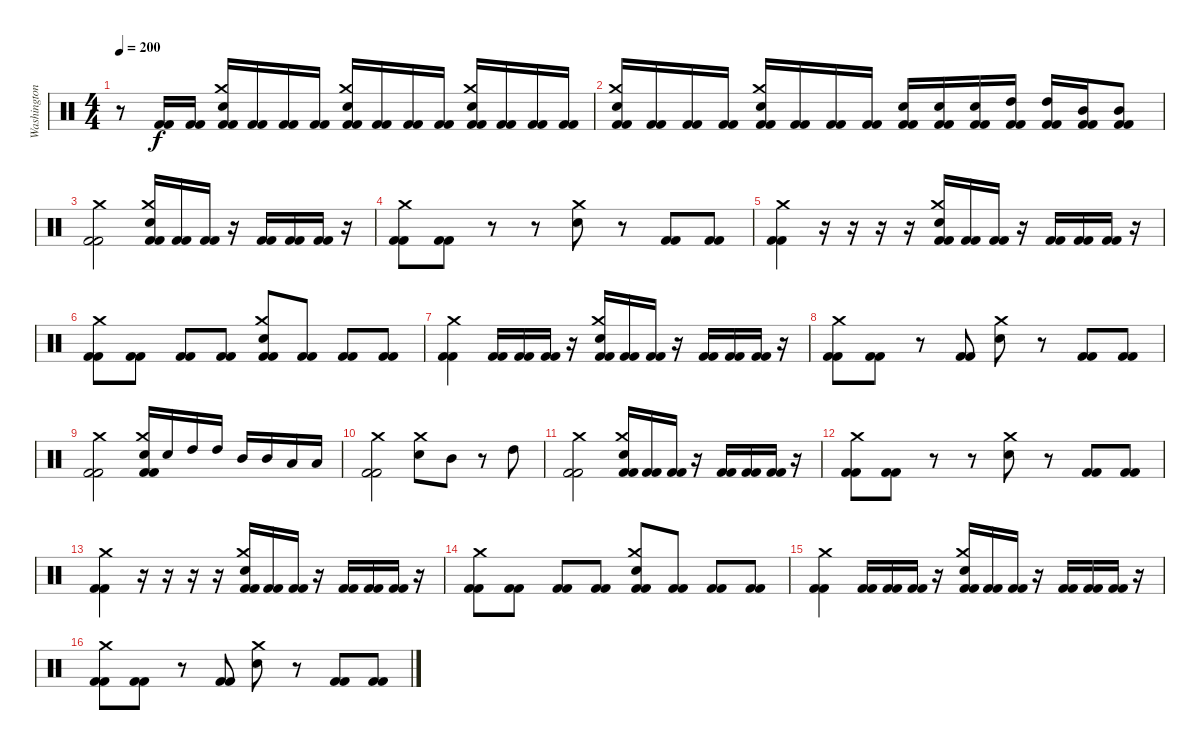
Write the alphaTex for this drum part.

\track ("Washington" "Washington") {instrument percussion}
\staff {score}
\articulation defaults
\ts (4 4)
\tempo 200
\clef neutral
\ks c
r.8{dy f} ("Kick (hit) 2" "Kick (hit) 2").16 ("Kick (hit) 2" "Kick (hit) 2").16 ("Crash medium (hit)" "Electric Snare (hit)" "Kick (hit) 2" "Kick (hit) 2").16 ("Kick (hit) 2" "Kick (hit) 2").16 ("Kick (hit) 2" "Kick (hit) 2").16 ("Kick (hit) 2" "Kick (hit) 2").16 ("Crash medium (hit)" "Electric Snare (hit)" "Kick (hit) 2" "Kick (hit) 2").16 ("Kick (hit) 2" "Kick (hit) 2").16 ("Kick (hit) 2" "Kick (hit) 2").16 ("Kick (hit) 2" "Kick (hit) 2").16 ("Crash medium (hit)" "Electric Snare (hit)" "Kick (hit) 2" "Kick (hit) 2").16 ("Kick (hit) 2" "Kick (hit) 2").16 ("Kick (hit) 2" "Kick (hit) 2").16 ("Kick (hit) 2" "Kick (hit) 2").16 |
("Crash medium (hit)" "Electric Snare (hit)" "Kick (hit) 2" "Kick (hit) 2").16 ("Kick (hit) 2" "Kick (hit) 2").16 ("Kick (hit) 2" "Kick (hit) 2").16 ("Kick (hit) 2" "Kick (hit) 2").16 ("Crash medium (hit)" "Electric Snare (hit)" "Kick (hit) 2" "Kick (hit) 2").16 ("Kick (hit) 2" "Kick (hit) 2").16 ("Kick (hit) 2" "Kick (hit) 2").16 ("Kick (hit) 2" "Kick (hit) 2").16 ("Electric Snare (hit)" "Kick (hit) 2" "Kick (hit) 2").16 ("Electric Snare (hit)" "Kick (hit) 2" "Kick (hit) 2").16 ("Electric Snare (hit)" "Kick (hit) 2" "Kick (hit) 2").16 ("High Tom (hit)" "Kick (hit) 2" "Kick (hit) 2").16 ("High Tom (hit)" "Kick (hit) 2" "Kick (hit) 2").16 ("Mid Tom (hit)" "Kick (hit) 2" "Kick (hit) 2").16 ("Mid Tom (hit)" "Kick (hit) 2" "Kick (hit) 2").8 |
("Crash medium (hit)" "Kick (hit) 2" "Kick (hit) 2").2 ("Crash medium (hit)" "Electric Snare (hit)" "Kick (hit) 2" "Kick (hit) 2").16 ("Kick (hit) 2" "Kick (hit) 2").16 ("Kick (hit) 2" "Kick (hit) 2").16 r.16 ("Kick (hit) 2" "Kick (hit) 2").16 ("Kick (hit) 2" "Kick (hit) 2").16 ("Kick (hit) 2" "Kick (hit) 2").16 r.16 |
("Crash medium (hit)" "Kick (hit) 2" "Kick (hit) 2").8 ("Kick (hit) 2" "Kick (hit) 2").8 r.8 r.8 ("Crash medium (hit)" "Electric Snare (hit)").8 r.8 ("Kick (hit) 2" "Kick (hit) 2").8 ("Kick (hit) 2" "Kick (hit) 2").8 |
("Crash medium (hit)" "Kick (hit) 2" "Kick (hit) 2").4 r.16 r.16 r.16 r.16 ("Crash medium (hit)" "Electric Snare (hit)" "Kick (hit) 2" "Kick (hit) 2").16 ("Kick (hit) 2" "Kick (hit) 2").16 ("Kick (hit) 2" "Kick (hit) 2").16 r.16 ("Kick (hit) 2" "Kick (hit) 2").16 ("Kick (hit) 2" "Kick (hit) 2").16 ("Kick (hit) 2" "Kick (hit) 2").16 r.16 |
("Crash medium (hit)" "Kick (hit) 2" "Kick (hit) 2").8 ("Kick (hit) 2" "Kick (hit) 2").8 ("Kick (hit) 2" "Kick (hit) 2").8 ("Kick (hit) 2" "Kick (hit) 2").8 ("Crash medium (hit)" "Electric Snare (hit)" "Kick (hit) 2" "Kick (hit) 2").8 ("Kick (hit) 2" "Kick (hit) 2").8 ("Kick (hit) 2" "Kick (hit) 2").8 ("Kick (hit) 2" "Kick (hit) 2").8 |
("Crash medium (hit)" "Kick (hit) 2" "Kick (hit) 2").4 ("Kick (hit) 2" "Kick (hit) 2").16 ("Kick (hit) 2" "Kick (hit) 2").16 ("Kick (hit) 2" "Kick (hit) 2").16 r.16 ("Crash medium (hit)" "Electric Snare (hit)" "Kick (hit) 2" "Kick (hit) 2").16 ("Kick (hit) 2" "Kick (hit) 2").16 ("Kick (hit) 2" "Kick (hit) 2").16 r.16 ("Kick (hit) 2" "Kick (hit) 2").16 ("Kick (hit) 2" "Kick (hit) 2").16 ("Kick (hit) 2" "Kick (hit) 2").16 r.16 |
("Crash medium (hit)" "Kick (hit) 2" "Kick (hit) 2").8 ("Kick (hit) 2" "Kick (hit) 2").8 r.8 ("Kick (hit) 2" "Kick (hit) 2").8 ("Crash medium (hit)" "Electric Snare (hit)").8 r.8 ("Kick (hit) 2" "Kick (hit) 2").8 ("Kick (hit) 2" "Kick (hit) 2").8 |
("Crash medium (hit)" "Kick (hit) 2" "Kick (hit) 2").2 ("Crash medium (hit)" "Electric Snare (hit)" "Kick (hit) 2" "Kick (hit) 2").16 "Electric Snare (hit)".16 "High Tom (hit)".16 "High Tom (hit)".16 "Mid Tom (hit)".16 "Mid Tom (hit)".16 "Low Tom (hit)".16 "Low Tom (hit)".16 |
("Crash medium (hit)" "Kick (hit) 2" "Kick (hit) 2").2 ("Crash medium (hit)" "Electric Snare (hit)").8 "Mid Tom (hit)".8 r.8 "High Tom (hit)".8 |
("Crash medium (hit)" "Kick (hit) 2" "Kick (hit) 2").2 ("Crash medium (hit)" "Electric Snare (hit)" "Kick (hit) 2" "Kick (hit) 2").16 ("Kick (hit) 2" "Kick (hit) 2").16 ("Kick (hit) 2" "Kick (hit) 2").16 r.16 ("Kick (hit) 2" "Kick (hit) 2").16 ("Kick (hit) 2" "Kick (hit) 2").16 ("Kick (hit) 2" "Kick (hit) 2").16 r.16 |
("Crash medium (hit)" "Kick (hit) 2" "Kick (hit) 2").8 ("Kick (hit) 2" "Kick (hit) 2").8 r.8 r.8 ("Crash medium (hit)" "Electric Snare (hit)").8 r.8 ("Kick (hit) 2" "Kick (hit) 2").8 ("Kick (hit) 2" "Kick (hit) 2").8 |
("Crash medium (hit)" "Kick (hit) 2" "Kick (hit) 2").4 r.16 r.16 r.16 r.16 ("Crash medium (hit)" "Electric Snare (hit)" "Kick (hit) 2" "Kick (hit) 2").16 ("Kick (hit) 2" "Kick (hit) 2").16 ("Kick (hit) 2" "Kick (hit) 2").16 r.16 ("Kick (hit) 2" "Kick (hit) 2").16 ("Kick (hit) 2" "Kick (hit) 2").16 ("Kick (hit) 2" "Kick (hit) 2").16 r.16 |
("Crash medium (hit)" "Kick (hit) 2" "Kick (hit) 2").8 ("Kick (hit) 2" "Kick (hit) 2").8 ("Kick (hit) 2" "Kick (hit) 2").8 ("Kick (hit) 2" "Kick (hit) 2").8 ("Crash medium (hit)" "Electric Snare (hit)" "Kick (hit) 2" "Kick (hit) 2").8 ("Kick (hit) 2" "Kick (hit) 2").8 ("Kick (hit) 2" "Kick (hit) 2").8 ("Kick (hit) 2" "Kick (hit) 2").8 |
("Crash medium (hit)" "Kick (hit) 2" "Kick (hit) 2").4 ("Kick (hit) 2" "Kick (hit) 2").16 ("Kick (hit) 2" "Kick (hit) 2").16 ("Kick (hit) 2" "Kick (hit) 2").16 r.16 ("Crash medium (hit)" "Electric Snare (hit)" "Kick (hit) 2" "Kick (hit) 2").16 ("Kick (hit) 2" "Kick (hit) 2").16 ("Kick (hit) 2" "Kick (hit) 2").16 r.16 ("Kick (hit) 2" "Kick (hit) 2").16 ("Kick (hit) 2" "Kick (hit) 2").16 ("Kick (hit) 2" "Kick (hit) 2").16 r.16 |
("Crash medium (hit)" "Kick (hit) 2" "Kick (hit) 2").8 ("Kick (hit) 2" "Kick (hit) 2").8 r.8 ("Kick (hit) 2" "Kick (hit) 2").8 ("Crash medium (hit)" "Electric Snare (hit)").8 r.8 ("Kick (hit) 2" "Kick (hit) 2").8 ("Kick (hit) 2" "Kick (hit) 2").8
